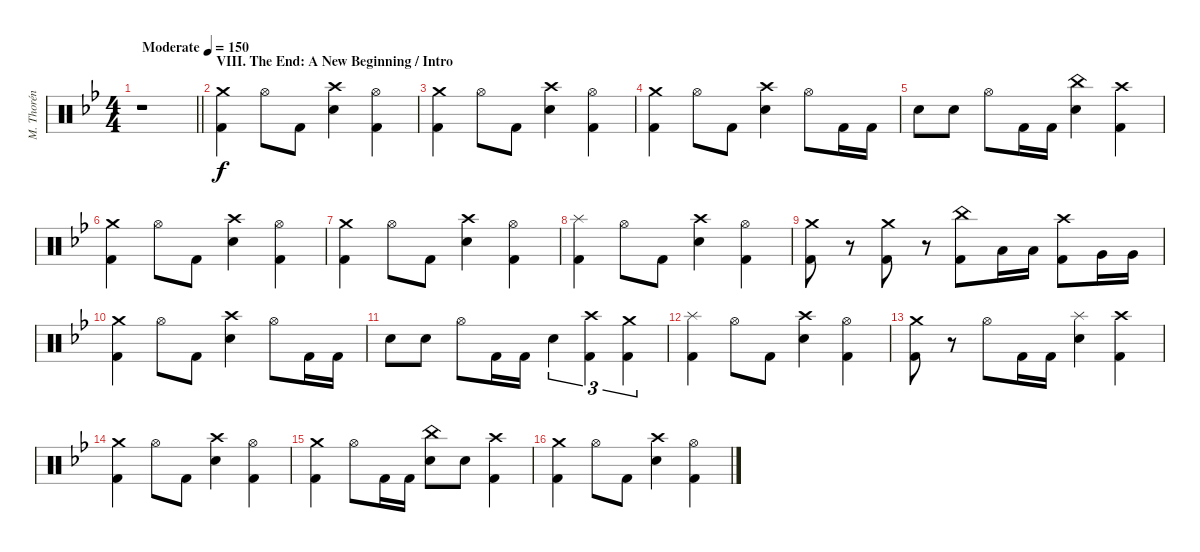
\track ("M. Thorén (Drums)" "M. Thorén ") {instrument percussion}
\staff {score}
\articulation defaults
\ts (4 4)
\tempo (150 "Moderate")
\clef neutral
\barLineRight lightlight
\ks gminor
r.1{dy f} |
\section ("" "VIII. The End: A New Beginning / Intro")
("Crash medium (hit)" "Kick (hit) 2").4 "Hi-Hat (open)".8 "Kick (hit) 2".8 ("Crash high (hit)" "Electric Snare (hit)").4 ("Hi-Hat (open)" "Kick (hit) 2").4 |
("Crash medium (hit)" "Kick (hit) 2").4 "Hi-Hat (open)".8 "Kick (hit) 2".8 ("Crash high (hit)" "Electric Snare (hit)").4 ("Hi-Hat (open)" "Kick (hit) 2").4 |
("Crash medium (hit)" "Kick (hit) 2").4 "Hi-Hat (open)".8 "Kick (hit) 2".8 ("Crash high (hit)" "Electric Snare (hit)").4 "Hi-Hat (open)".8 "Kick (hit) 2".16 "Kick (hit) 2".16 |
"Electric Snare (hit)".8 "Electric Snare (hit)".8 "Hi-Hat (open)".8 "Kick (hit) 2".16 "Kick (hit) 2".16 ("China (hit)" "Electric Snare (hit)").4 ("Crash high (hit)" "Kick (hit) 2").4 |
("Crash medium (hit)" "Kick (hit) 2").4 "Hi-Hat (open)".8 "Kick (hit) 2".8 ("Crash high (hit)" "Electric Snare (hit)").4 ("Hi-Hat (open)" "Kick (hit) 2").4 |
("Crash medium (hit)" "Kick (hit) 2").4 "Hi-Hat (open)".8 "Kick (hit) 2".8 ("Crash high (hit)" "Electric Snare (hit)").4 ("Hi-Hat (open)" "Kick (hit) 2").4 |
("Splash (hit)" "Kick (hit) 2").4 "Hi-Hat (open)".8 "Kick (hit) 2".8 ("Crash high (hit)" "Electric Snare (hit)").4 ("Hi-Hat (open)" "Kick (hit) 2").4 |
("Crash medium (hit)" "Kick (hit) 2").8 r.8 ("Crash medium (hit)" "Kick (hit) 2").8 r.8 ("China (hit)" "Kick (hit) 2").8 "Low Tom (hit)".16 "Low Tom (hit)".16 ("Crash high (hit)" "Kick (hit) 2").8 "Very Low Tom (hit)".16 "Very Low Tom (hit)".16 |
("Crash medium (hit)" "Kick (hit) 2").4 "Hi-Hat (open)".8 "Kick (hit) 2".8 ("Crash high (hit)" "Electric Snare (hit)").4 "Hi-Hat (open)".8 "Kick (hit) 2".16 "Kick (hit) 2".16 |
"Electric Snare (hit)".8 "Electric Snare (hit)".8 "Hi-Hat (open)".8 "Kick (hit) 2".16 "Kick (hit) 2".16 "Electric Snare (hit)".4{tu (3 2)} ("Crash high (hit)" "Kick (hit) 2").4{tu (3 2)} ("Crash medium (hit)" "Kick (hit) 2").4{tu (3 2)} |
("Splash (hit)" "Kick (hit) 2").4 "Hi-Hat (open)".8 "Kick (hit) 2".8 ("Crash high (hit)" "Electric Snare (hit)").4 ("Hi-Hat (open)" "Kick (hit) 2").4 |
("Crash medium (hit)" "Kick (hit) 2").8 r.8 "Hi-Hat (open)".8 "Kick (hit) 2".16 "Kick (hit) 2".16 ("Splash (hit)" "Electric Snare (hit)").4 ("Crash high (hit)" "Kick (hit) 2").4 |
("Crash medium (hit)" "Kick (hit) 2").4 "Hi-Hat (open)".8 "Kick (hit) 2".8 ("Crash high (hit)" "Electric Snare (hit)").4 ("Hi-Hat (open)" "Kick (hit) 2").4 |
("Crash medium (hit)" "Kick (hit) 2").4 "Hi-Hat (open)".8 "Kick (hit) 2".16 "Kick (hit) 2".16 ("China (hit)" "Electric Snare (hit)").8 "Electric Snare (hit)".8 ("Crash high (hit)" "Kick (hit) 2").4 |
("Crash medium (hit)" "Kick (hit) 2").4 "Hi-Hat (open)".8 "Kick (hit) 2".8 ("Crash high (hit)" "Electric Snare (hit)").4 ("Hi-Hat (open)" "Kick (hit) 2").4
